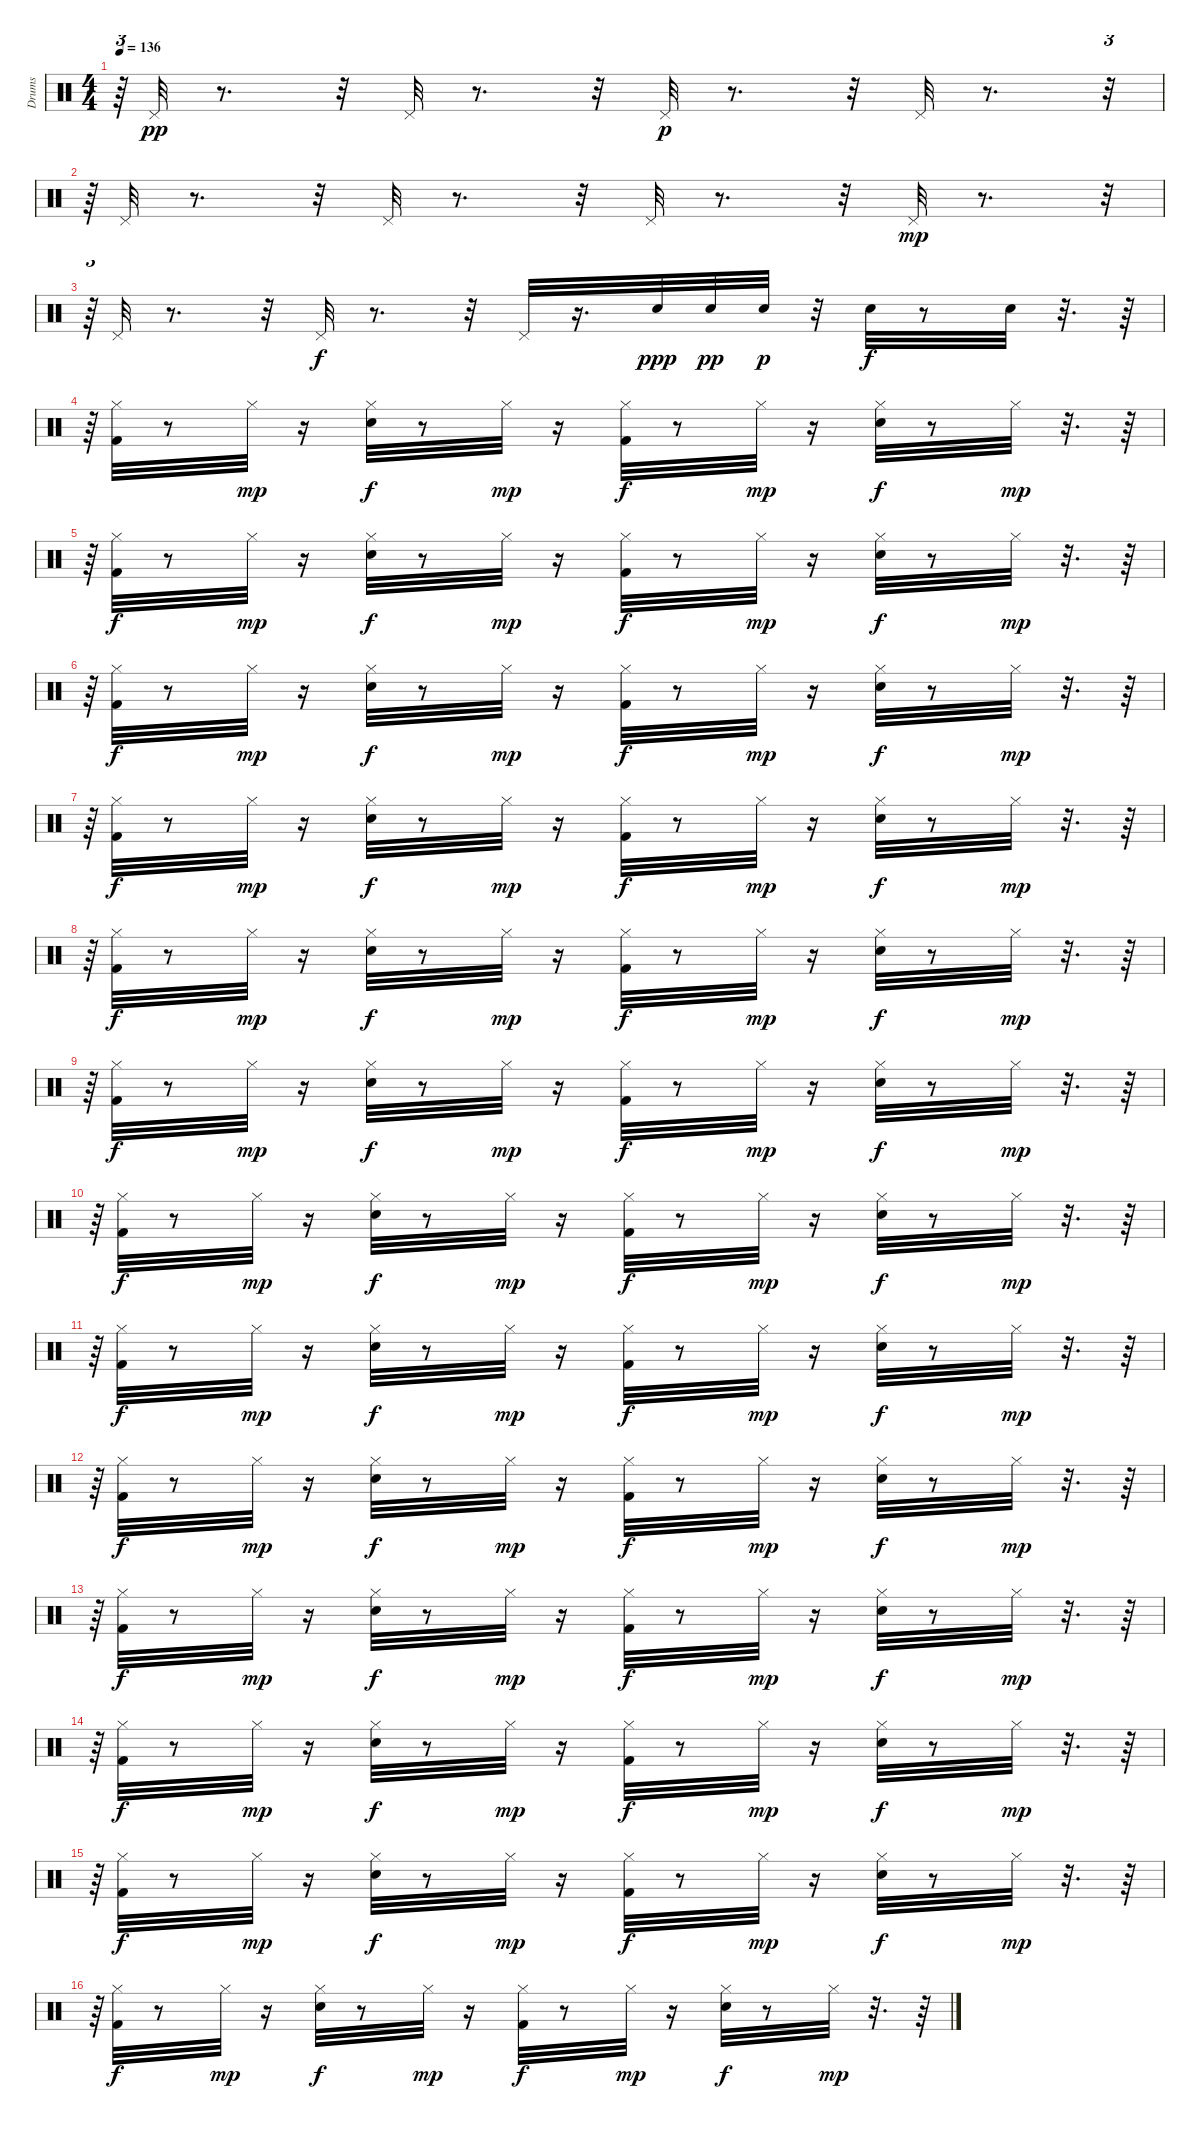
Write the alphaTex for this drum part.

\track ("Drums" "Drums") {instrument percussion}
\staff {score}
\articulation defaults
\ts (4 4)
\tempo 136
\clef neutral
\ks c
r.64{tu (3 2) dy pp} "Pedal Hi-Hat (hit)".32 r.8{d} r.32 "Pedal Hi-Hat (hit)".32 r.8{d} r.32 "Pedal Hi-Hat (hit)".32{dy p} r.8{d} r.32 "Pedal Hi-Hat (hit)".32 r.8{d} r.32{tu (3 2)} |
r.64{tu (3 2)} "Pedal Hi-Hat (hit)".32 r.8{d} r.32 "Pedal Hi-Hat (hit)".32 r.8{d} r.32 "Pedal Hi-Hat (hit)".32 r.8{d} r.32 "Pedal Hi-Hat (hit)".32{dy mp} r.8{d} r.32{tu (3 2)} |
r.64{tu (3 2)} "Pedal Hi-Hat (hit)".32 r.8{d} r.32 "Pedal Hi-Hat (hit)".32{dy f} r.8{d} r.32 "Pedal Hi-Hat (hit)".32 r.16{d} "Electric Snare (hit)".32{dy ppp} "Electric Snare (hit)".32{dy pp} "Electric Snare (hit)".32{dy p} r.32 "Electric Snare (hit)".32{dy f} r.8 "Electric Snare (hit)".32 r.32{d} r.64 |
r.64{tu (3 2)} ("Kick (hit) 2" "Hi-Hat (closed)").32 r.8 "Hi-Hat (closed)".32{dy mp} r.16 ("Hi-Hat (closed)" "Electric Snare (hit)").32{dy f} r.8 "Hi-Hat (closed)".32{dy mp} r.16 ("Hi-Hat (closed)" "Kick (hit) 2").32{dy f} r.8 "Hi-Hat (closed)".32{dy mp} r.16 ("Hi-Hat (closed)" "Electric Snare (hit)").32{dy f} r.8 "Hi-Hat (closed)".32{dy mp} r.32{d} r.64 |
r.64{tu (3 2)} ("Kick (hit) 2" "Hi-Hat (closed)").32{dy f} r.8 "Hi-Hat (closed)".32{dy mp} r.16 ("Hi-Hat (closed)" "Electric Snare (hit)").32{dy f} r.8 "Hi-Hat (closed)".32{dy mp} r.16 ("Hi-Hat (closed)" "Kick (hit) 2").32{dy f} r.8 "Hi-Hat (closed)".32{dy mp} r.16 ("Hi-Hat (closed)" "Electric Snare (hit)").32{dy f} r.8 "Hi-Hat (closed)".32{dy mp} r.32{d} r.64 |
r.64{tu (3 2)} ("Kick (hit) 2" "Hi-Hat (closed)").32{dy f} r.8 "Hi-Hat (closed)".32{dy mp} r.16 ("Hi-Hat (closed)" "Electric Snare (hit)").32{dy f} r.8 "Hi-Hat (closed)".32{dy mp} r.16 ("Hi-Hat (closed)" "Kick (hit) 2").32{dy f} r.8 "Hi-Hat (closed)".32{dy mp} r.16 ("Hi-Hat (closed)" "Electric Snare (hit)").32{dy f} r.8 "Hi-Hat (closed)".32{dy mp} r.32{d} r.64 |
r.64{tu (3 2)} ("Kick (hit) 2" "Hi-Hat (closed)").32{dy f} r.8 "Hi-Hat (closed)".32{dy mp} r.16 ("Hi-Hat (closed)" "Electric Snare (hit)").32{dy f} r.8 "Hi-Hat (closed)".32{dy mp} r.16 ("Hi-Hat (closed)" "Kick (hit) 2").32{dy f} r.8 "Hi-Hat (closed)".32{dy mp} r.16 ("Hi-Hat (closed)" "Electric Snare (hit)").32{dy f} r.8 "Hi-Hat (closed)".32{dy mp} r.32{d} r.64 |
r.64{tu (3 2)} ("Kick (hit) 2" "Hi-Hat (closed)").32{dy f} r.8 "Hi-Hat (closed)".32{dy mp} r.16 ("Hi-Hat (closed)" "Electric Snare (hit)").32{dy f} r.8 "Hi-Hat (closed)".32{dy mp} r.16 ("Hi-Hat (closed)" "Kick (hit) 2").32{dy f} r.8 "Hi-Hat (closed)".32{dy mp} r.16 ("Hi-Hat (closed)" "Electric Snare (hit)").32{dy f} r.8 "Hi-Hat (closed)".32{dy mp} r.32{d} r.64 |
r.64{tu (3 2)} ("Kick (hit) 2" "Hi-Hat (closed)").32{dy f} r.8 "Hi-Hat (closed)".32{dy mp} r.16 ("Hi-Hat (closed)" "Electric Snare (hit)").32{dy f} r.8 "Hi-Hat (closed)".32{dy mp} r.16 ("Hi-Hat (closed)" "Kick (hit) 2").32{dy f} r.8 "Hi-Hat (closed)".32{dy mp} r.16 ("Hi-Hat (closed)" "Electric Snare (hit)").32{dy f} r.8 "Hi-Hat (closed)".32{dy mp} r.32{d} r.64 |
r.64{tu (3 2)} ("Kick (hit) 2" "Hi-Hat (closed)").32{dy f} r.8 "Hi-Hat (closed)".32{dy mp} r.16 ("Hi-Hat (closed)" "Electric Snare (hit)").32{dy f} r.8 "Hi-Hat (closed)".32{dy mp} r.16 ("Hi-Hat (closed)" "Kick (hit) 2").32{dy f} r.8 "Hi-Hat (closed)".32{dy mp} r.16 ("Hi-Hat (closed)" "Electric Snare (hit)").32{dy f} r.8 "Hi-Hat (closed)".32{dy mp} r.32{d} r.64 |
r.64{tu (3 2)} ("Kick (hit) 2" "Hi-Hat (closed)").32{dy f} r.8 "Hi-Hat (closed)".32{dy mp} r.16 ("Hi-Hat (closed)" "Electric Snare (hit)").32{dy f} r.8 "Hi-Hat (closed)".32{dy mp} r.16 ("Hi-Hat (closed)" "Kick (hit) 2").32{dy f} r.8 "Hi-Hat (closed)".32{dy mp} r.16 ("Hi-Hat (closed)" "Electric Snare (hit)").32{dy f} r.8 "Hi-Hat (closed)".32{dy mp} r.32{d} r.64 |
r.64{tu (3 2)} ("Kick (hit) 2" "Hi-Hat (closed)").32{dy f} r.8 "Hi-Hat (closed)".32{dy mp} r.16 ("Hi-Hat (closed)" "Electric Snare (hit)").32{dy f} r.8 "Hi-Hat (closed)".32{dy mp} r.16 ("Hi-Hat (closed)" "Kick (hit) 2").32{dy f} r.8 "Hi-Hat (closed)".32{dy mp} r.16 ("Hi-Hat (closed)" "Electric Snare (hit)").32{dy f} r.8 "Hi-Hat (closed)".32{dy mp} r.32{d} r.64 |
r.64{tu (3 2)} ("Kick (hit) 2" "Hi-Hat (closed)").32{dy f} r.8 "Hi-Hat (closed)".32{dy mp} r.16 ("Hi-Hat (closed)" "Electric Snare (hit)").32{dy f} r.8 "Hi-Hat (closed)".32{dy mp} r.16 ("Hi-Hat (closed)" "Kick (hit) 2").32{dy f} r.8 "Hi-Hat (closed)".32{dy mp} r.16 ("Hi-Hat (closed)" "Electric Snare (hit)").32{dy f} r.8 "Hi-Hat (closed)".32{dy mp} r.32{d} r.64 |
r.64{tu (3 2)} ("Kick (hit) 2" "Hi-Hat (closed)").32{dy f} r.8 "Hi-Hat (closed)".32{dy mp} r.16 ("Hi-Hat (closed)" "Electric Snare (hit)").32{dy f} r.8 "Hi-Hat (closed)".32{dy mp} r.16 ("Hi-Hat (closed)" "Kick (hit) 2").32{dy f} r.8 "Hi-Hat (closed)".32{dy mp} r.16 ("Hi-Hat (closed)" "Electric Snare (hit)").32{dy f} r.8 "Hi-Hat (closed)".32{dy mp} r.32{d} r.64 |
r.64{tu (3 2)} ("Kick (hit) 2" "Hi-Hat (closed)").32{dy f} r.8 "Hi-Hat (closed)".32{dy mp} r.16 ("Hi-Hat (closed)" "Electric Snare (hit)").32{dy f} r.8 "Hi-Hat (closed)".32{dy mp} r.16 ("Hi-Hat (closed)" "Kick (hit) 2").32{dy f} r.8 "Hi-Hat (closed)".32{dy mp} r.16 ("Hi-Hat (closed)" "Electric Snare (hit)").32{dy f} r.8 "Hi-Hat (closed)".32{dy mp} r.32{d} r.64 |
r.64{tu (3 2)} ("Kick (hit) 2" "Hi-Hat (closed)").32{dy f} r.8 "Hi-Hat (closed)".32{dy mp} r.16 ("Hi-Hat (closed)" "Electric Snare (hit)").32{dy f} r.8 "Hi-Hat (closed)".32{dy mp} r.16 ("Hi-Hat (closed)" "Kick (hit) 2").32{dy f} r.8 "Hi-Hat (closed)".32{dy mp} r.16 ("Hi-Hat (closed)" "Electric Snare (hit)").32{dy f} r.8 "Hi-Hat (closed)".32{dy mp} r.32{d} r.64
